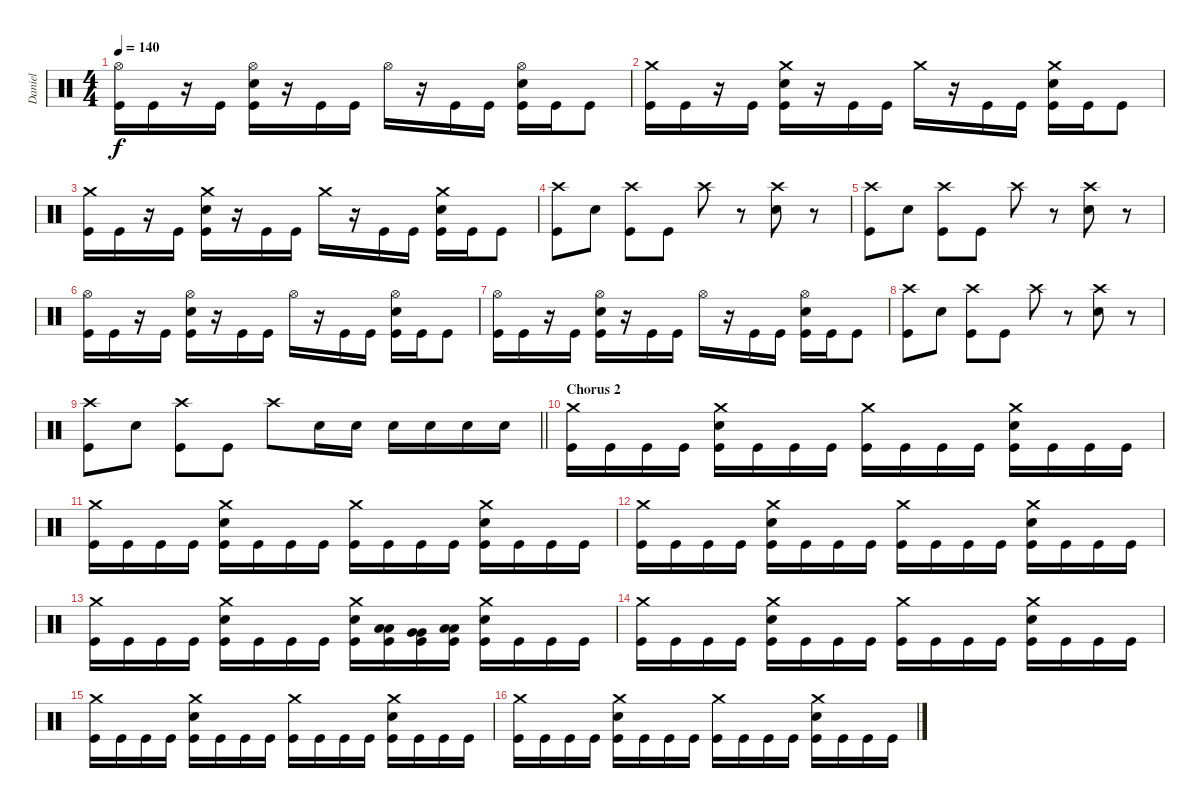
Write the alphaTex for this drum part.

\track ("Daniel" "Daniel") {instrument percussion}
\staff {score}
\articulation defaults
\ts (4 4)
\tempo 140
\clef neutral
\ks c
("Hi-Hat (open)" "Kick (hit)").16{dy f} "Kick (hit)".16 r.16 "Kick (hit)".16 ("Hi-Hat (open)" "Electric Snare (hit)" "Kick (hit)").16 r.16 "Kick (hit)".16 "Kick (hit)".16 "Hi-Hat (open)".16 r.16 "Kick (hit)".16 "Kick (hit)".16 ("Hi-Hat (open)" "Electric Snare (hit)" "Kick (hit)").16 "Kick (hit)".16 "Kick (hit)".8 |
("Crash medium (hit)" "Kick (hit)").16 "Kick (hit)".16 r.16 "Kick (hit)".16 ("Crash medium (hit)" "Electric Snare (hit)" "Kick (hit)").16 r.16 "Kick (hit)".16 "Kick (hit)".16 "Crash medium (hit)".16 r.16 "Kick (hit)".16 "Kick (hit)".16 ("Crash medium (hit)" "Electric Snare (hit)" "Kick (hit)").16 "Kick (hit)".16 "Kick (hit)".8 |
("Crash medium (hit)" "Kick (hit)").16 "Kick (hit)".16 r.16 "Kick (hit)".16 ("Crash medium (hit)" "Electric Snare (hit)" "Kick (hit)").16 r.16 "Kick (hit)".16 "Kick (hit)".16 "Crash medium (hit)".16 r.16 "Kick (hit)".16 "Kick (hit)".16 ("Crash medium (hit)" "Electric Snare (hit)" "Kick (hit)").16 "Kick (hit)".16 "Kick (hit)".8 |
("Crash high (hit)" "Kick (hit)").8 "Electric Snare (hit)".8 ("Crash high (hit)" "Kick (hit)").8 "Kick (hit)".8 "Crash high (hit)".8 r.8 ("Crash high (hit)" "Electric Snare (hit)").8 r.8 |
("Crash high (hit)" "Kick (hit)").8 "Electric Snare (hit)".8 ("Crash high (hit)" "Kick (hit)").8 "Kick (hit)".8 "Crash high (hit)".8 r.8 ("Crash high (hit)" "Electric Snare (hit)").8 r.8 |
("Hi-Hat (open)" "Kick (hit)").16 "Kick (hit)".16 r.16 "Kick (hit)".16 ("Hi-Hat (open)" "Electric Snare (hit)" "Kick (hit)").16 r.16 "Kick (hit)".16 "Kick (hit)".16 "Hi-Hat (open)".16 r.16 "Kick (hit)".16 "Kick (hit)".16 ("Hi-Hat (open)" "Electric Snare (hit)" "Kick (hit)").16 "Kick (hit)".16 "Kick (hit)".8 |
("Hi-Hat (open)" "Kick (hit)").16 "Kick (hit)".16 r.16 "Kick (hit)".16 ("Hi-Hat (open)" "Electric Snare (hit)" "Kick (hit)").16 r.16 "Kick (hit)".16 "Kick (hit)".16 "Hi-Hat (open)".16 r.16 "Kick (hit)".16 "Kick (hit)".16 ("Hi-Hat (open)" "Electric Snare (hit)" "Kick (hit)").16 "Kick (hit)".16 "Kick (hit)".8 |
("Crash high (hit)" "Kick (hit)").8 "Electric Snare (hit)".8 ("Crash high (hit)" "Kick (hit)").8 "Kick (hit)".8 "Crash high (hit)".8 r.8 ("Crash high (hit)" "Electric Snare (hit)").8 r.8 |
\barLineRight lightlight
("Crash high (hit)" "Kick (hit)").8 "Electric Snare (hit)".8 ("Crash high (hit)" "Kick (hit)").8 "Kick (hit)".8 "Crash high (hit)".8 "Electric Snare (hit)".16 "Electric Snare (hit)".16 "Electric Snare (hit)".16 "Electric Snare (hit)".16 "Electric Snare (hit)".16 "Electric Snare (hit)".16 |
\section ("" "Chorus 2")
("Crash medium (hit)" "Kick (hit)").16 "Kick (hit)".16 "Kick (hit)".16 "Kick (hit)".16 ("Crash medium (hit)" "Electric Snare (hit)" "Kick (hit)").16 "Kick (hit)".16 "Kick (hit)".16 "Kick (hit)".16 ("Crash medium (hit)" "Kick (hit)").16 "Kick (hit)".16 "Kick (hit)".16 "Kick (hit)".16 ("Crash medium (hit)" "Electric Snare (hit)" "Kick (hit)").16 "Kick (hit)".16 "Kick (hit)".16 "Kick (hit)".16 |
("Crash medium (hit)" "Kick (hit)").16 "Kick (hit)".16 "Kick (hit)".16 "Kick (hit)".16 ("Crash medium (hit)" "Electric Snare (hit)" "Kick (hit)").16 "Kick (hit)".16 "Kick (hit)".16 "Kick (hit)".16 ("Crash medium (hit)" "Kick (hit)").16 "Kick (hit)".16 "Kick (hit)".16 "Kick (hit)".16 ("Crash medium (hit)" "Electric Snare (hit)" "Kick (hit)").16 "Kick (hit)".16 "Kick (hit)".16 "Kick (hit)".16 |
("Crash medium (hit)" "Kick (hit)").16 "Kick (hit)".16 "Kick (hit)".16 "Kick (hit)".16 ("Crash medium (hit)" "Electric Snare (hit)" "Kick (hit)").16 "Kick (hit)".16 "Kick (hit)".16 "Kick (hit)".16 ("Crash medium (hit)" "Kick (hit)").16 "Kick (hit)".16 "Kick (hit)".16 "Kick (hit)".16 ("Crash medium (hit)" "Electric Snare (hit)" "Kick (hit)").16 "Kick (hit)".16 "Kick (hit)".16 "Kick (hit)".16 |
("Crash medium (hit)" "Kick (hit)").16 "Kick (hit)".16 "Kick (hit)".16 "Kick (hit)".16 ("Crash medium (hit)" "Electric Snare (hit)" "Kick (hit)").16 "Kick (hit)".16 "Kick (hit)".16 "Kick (hit)".16 ("Crash medium (hit)" "Electric Snare (hit)" "Kick (hit)").16 ("Low Tom (hit)" "Low Tom (hit)" "Kick (hit)").16 ("Very Low Tom (hit)" "Very Low Tom (hit)" "Kick (hit)").16 ("Low Floor Tom (hit)" "Low Floor Tom (hit)" "Kick (hit)").16 ("Crash medium (hit)" "Electric Snare (hit)" "Kick (hit)").16 "Kick (hit)".16 "Kick (hit)".16 "Kick (hit)".16 |
("Crash medium (hit)" "Kick (hit)").16 "Kick (hit)".16 "Kick (hit)".16 "Kick (hit)".16 ("Crash medium (hit)" "Electric Snare (hit)" "Kick (hit)").16 "Kick (hit)".16 "Kick (hit)".16 "Kick (hit)".16 ("Crash medium (hit)" "Kick (hit)").16 "Kick (hit)".16 "Kick (hit)".16 "Kick (hit)".16 ("Crash medium (hit)" "Electric Snare (hit)" "Kick (hit)").16 "Kick (hit)".16 "Kick (hit)".16 "Kick (hit)".16 |
("Crash medium (hit)" "Kick (hit)").16 "Kick (hit)".16 "Kick (hit)".16 "Kick (hit)".16 ("Crash medium (hit)" "Electric Snare (hit)" "Kick (hit)").16 "Kick (hit)".16 "Kick (hit)".16 "Kick (hit)".16 ("Crash medium (hit)" "Kick (hit)").16 "Kick (hit)".16 "Kick (hit)".16 "Kick (hit)".16 ("Crash medium (hit)" "Electric Snare (hit)" "Kick (hit)").16 "Kick (hit)".16 "Kick (hit)".16 "Kick (hit)".16 |
("Crash medium (hit)" "Kick (hit)").16 "Kick (hit)".16 "Kick (hit)".16 "Kick (hit)".16 ("Crash medium (hit)" "Electric Snare (hit)" "Kick (hit)").16 "Kick (hit)".16 "Kick (hit)".16 "Kick (hit)".16 ("Crash medium (hit)" "Kick (hit)").16 "Kick (hit)".16 "Kick (hit)".16 "Kick (hit)".16 ("Crash medium (hit)" "Electric Snare (hit)" "Kick (hit)").16 "Kick (hit)".16 "Kick (hit)".16 "Kick (hit)".16
